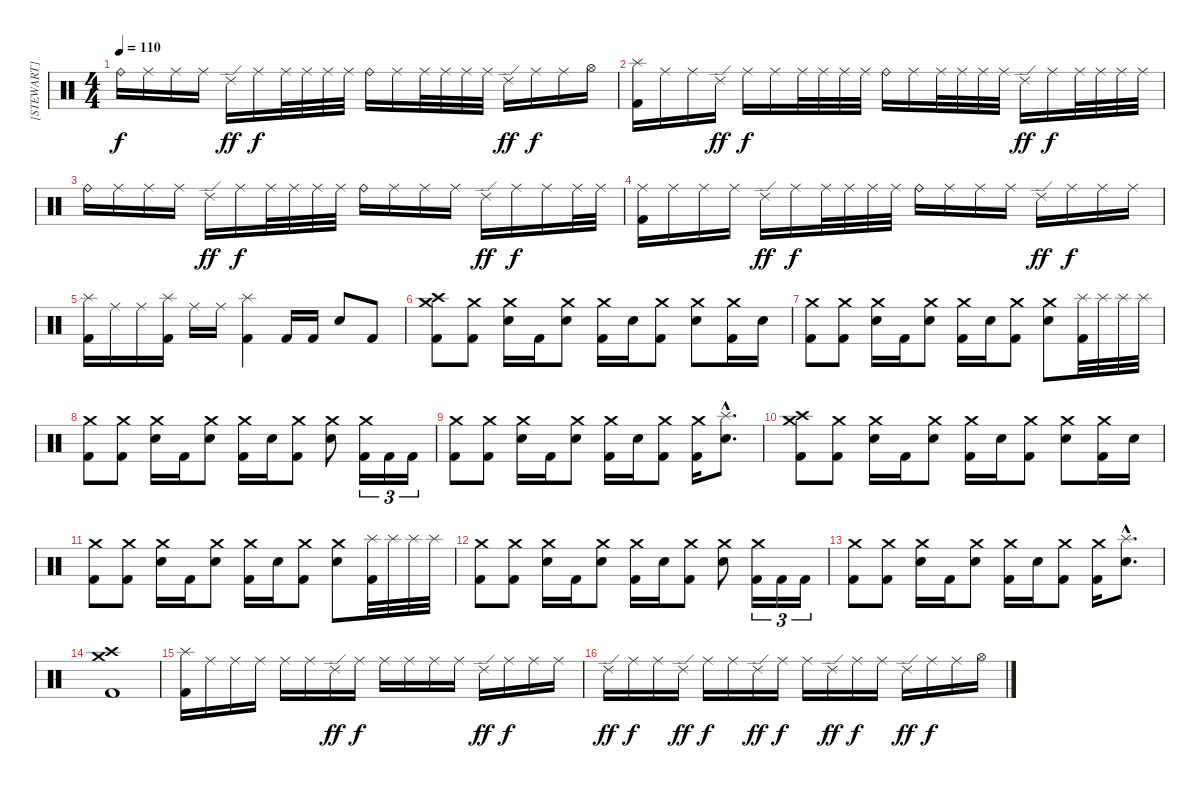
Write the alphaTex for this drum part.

\track ("[STEWART]" "[STEWART]") {instrument percussion}
\staff {score}
\articulation defaults
\ts (4 4)
\tempo 110
\clef neutral
\ks c "Ride (bell)".16{dy f} "Ride (middle)".16 "Ride (middle)".16 "Ride (middle)".16 "Ride (edge) 2".16{dy ff} "Ride (middle)".16{dy f} "Ride (middle)".32 "Ride (middle)".32 "Ride (middle)".32 "Ride (middle)".32 "Ride (bell)".16 "Ride (middle)".16 "Ride (middle)".32 "Ride (middle)".32 "Ride (middle)".32 "Ride (middle)".32 "Ride (edge) 2".16{dy ff} "Ride (middle)".16{dy f} "Ride (middle)".16 "Hi-Hat (open)".16
|
("Splash (hit)" "Kick (hit) 2").16 "Ride (middle)".16 "Ride (middle)".16 "Ride (edge) 2".16{dy ff} "Ride (middle)".16{dy f} "Ride (middle)".16 "Ride (middle)".32 "Ride (middle)".32 "Ride (middle)".32 "Ride (middle)".32 "Ride (bell)".16 "Ride (middle)".16 "Ride (middle)".32 "Ride (middle)".32 "Ride (middle)".32 "Ride (middle)".32 "Ride (edge) 2".16{dy ff} "Ride (middle)".16{dy f} "Ride (middle)".32 "Ride (middle)".32 "Ride (middle)".32 "Ride (middle)".32 |
"Ride (bell)".16 "Ride (middle)".16 "Ride (middle)".16 "Ride (middle)".16 "Ride (edge) 2".16{dy ff} "Ride (middle)".16{dy f} "Ride (middle)".32 "Ride (middle)".32 "Ride (middle)".32 "Ride (middle)".32 "Ride (bell)".16 "Ride (middle)".16 "Ride (middle)".16 "Ride (middle)".16 "Ride (edge) 2".16{dy ff} "Ride (middle)".16{dy f} "Ride (middle)".16 "Ride (middle)".32 "Ride (middle)".32 |
("Ride (middle)" "Kick (hit) 2").16 "Ride (middle)".16 "Ride (middle)".16 "Ride (middle)".16 "Ride (edge) 2".16{dy ff} "Ride (middle)".16{dy f} "Ride (middle)".32 "Ride (middle)".32 "Ride (middle)".32 "Ride (middle)".32 "Ride (bell)".16 "Ride (middle)".16 "Ride (middle)".16 "Ride (middle)".16 "Ride (edge) 2".16{dy ff} "Ride (middle)".16{dy f} "Ride (middle)".16 "Ride (middle)".16 |
("Splash (hit)" "Kick (hit) 2").16 "Ride (middle)".16 "Ride (middle)".16 ("Splash (hit)" "Kick (hit) 2").16 "Ride (middle)".16 "Ride (middle)".16 ("Splash (hit)" "Kick (hit) 2").4 "Kick (hit) 2".16 "Kick (hit) 2".16 "Electric Snare (hit)".8 "Kick (hit) 2".8 |
("Crash medium (hit)" "Crash high (hit)" "Kick (hit) 2").8 ("Crash medium (hit)" "Kick (hit) 2").8 ("Crash medium (hit)" "Electric Snare (hit)").16 "Kick (hit) 2".16 ("Crash medium (hit)" "Electric Snare (hit)").8 ("Crash medium (hit)" "Kick (hit) 2").16 "Electric Snare (hit)".16 ("Crash medium (hit)" "Kick (hit) 2").8 ("Crash medium (hit)" "Electric Snare (hit)").8 ("Crash medium (hit)" "Kick (hit) 2").16 "Electric Snare (hit)".16 |
("Crash medium (hit)" "Kick (hit) 2").8 ("Crash medium (hit)" "Kick (hit) 2").8 ("Crash medium (hit)" "Electric Snare (hit)").16 "Kick (hit) 2".16 ("Crash medium (hit)" "Electric Snare (hit)").8 ("Crash medium (hit)" "Kick (hit) 2").16 "Electric Snare (hit)".16 ("Crash medium (hit)" "Kick (hit) 2").8 ("Crash medium (hit)" "Electric Snare (hit)").8 ("Splash (hit)" "Kick (hit) 2").32 "Splash (hit)".32 "Splash (hit)".32 "Splash (hit)".32 |
("Crash medium (hit)" "Kick (hit) 2").8 ("Crash medium (hit)" "Kick (hit) 2").8 ("Crash medium (hit)" "Electric Snare (hit)").16 "Kick (hit) 2".16 ("Crash medium (hit)" "Electric Snare (hit)").8 ("Crash medium (hit)" "Kick (hit) 2").16 "Electric Snare (hit)".16 ("Crash medium (hit)" "Kick (hit) 2").8 ("Crash medium (hit)" "Electric Snare (hit)").8 ("Crash medium (hit)" "Kick (hit) 2").16{tu (3 2)} "Kick (hit) 2".16{tu (3 2)} "Kick (hit) 2".16{tu (3 2)} |
("Crash medium (hit)" "Kick (hit) 2").8 ("Crash medium (hit)" "Kick (hit) 2").8 ("Crash medium (hit)" "Electric Snare (hit)").16 "Kick (hit) 2".16 ("Crash medium (hit)" "Electric Snare (hit)").8 ("Crash medium (hit)" "Kick (hit) 2").16 "Electric Snare (hit)".16 ("Crash medium (hit)" "Kick (hit) 2").8 ("Crash medium (hit)" "Kick (hit) 2").16 ("Splash (hit)"{hac} "Electric Snare (hit)"{hac}).8{d} |
("Crash medium (hit)" "Crash high (hit)" "Kick (hit) 2").8 ("Crash medium (hit)" "Kick (hit) 2").8 ("Crash medium (hit)" "Electric Snare (hit)").16 "Kick (hit) 2".16 ("Crash medium (hit)" "Electric Snare (hit)").8 ("Crash medium (hit)" "Kick (hit) 2").16 "Electric Snare (hit)".16 ("Crash medium (hit)" "Kick (hit) 2").8 ("Crash medium (hit)" "Electric Snare (hit)").8 ("Crash medium (hit)" "Kick (hit) 2").16 "Electric Snare (hit)".16 |
("Crash medium (hit)" "Kick (hit) 2").8 ("Crash medium (hit)" "Kick (hit) 2").8 ("Crash medium (hit)" "Electric Snare (hit)").16 "Kick (hit) 2".16 ("Crash medium (hit)" "Electric Snare (hit)").8 ("Crash medium (hit)" "Kick (hit) 2").16 "Electric Snare (hit)".16 ("Crash medium (hit)" "Kick (hit) 2").8 ("Crash medium (hit)" "Electric Snare (hit)").8 ("Splash (hit)" "Kick (hit) 2").32 "Splash (hit)".32 "Splash (hit)".32 "Splash (hit)".32 |
("Crash medium (hit)" "Kick (hit) 2").8 ("Crash medium (hit)" "Kick (hit) 2").8 ("Crash medium (hit)" "Electric Snare (hit)").16 "Kick (hit) 2".16 ("Crash medium (hit)" "Electric Snare (hit)").8 ("Crash medium (hit)" "Kick (hit) 2").16 "Electric Snare (hit)".16 ("Crash medium (hit)" "Kick (hit) 2").8 ("Crash medium (hit)" "Electric Snare (hit)").8 ("Crash medium (hit)" "Kick (hit) 2").16{tu (3 2)} "Kick (hit) 2".16{tu (3 2)} "Kick (hit) 2".16{tu (3 2)} |
("Crash medium (hit)" "Kick (hit) 2").8 ("Crash medium (hit)" "Kick (hit) 2").8 ("Crash medium (hit)" "Electric Snare (hit)").16 "Kick (hit) 2".16 ("Crash medium (hit)" "Electric Snare (hit)").8 ("Crash medium (hit)" "Kick (hit) 2").16 "Electric Snare (hit)".16 ("Crash medium (hit)" "Kick (hit) 2").8 ("Crash medium (hit)" "Kick (hit) 2").16 ("Splash (hit)"{hac} "Electric Snare (hit)"{hac}).8{d} |
("Crash medium (hit)" "Crash high (hit)" "Kick (hit) 2").1 |
("Splash (hit)" "Kick (hit) 2").16 "Ride (middle)".16 "Ride (middle)".16 "Ride (middle)".16 "Ride (middle)".16 "Ride (middle)".16 "Ride (edge) 2".16{dy ff} "Ride (middle)".16{dy f} "Ride (middle)".16 "Ride (middle)".16 "Ride (middle)".16 "Ride (middle)".16 "Ride (edge) 2".16{dy ff} "Ride (middle)".16{dy f} "Ride (middle)".16 "Ride (middle)".16 |
"Ride (edge) 2".16{dy ff} "Ride (middle)".16{dy f} "Ride (middle)".16 "Ride (edge) 2".16{dy ff} "Ride (middle)".16{dy f} "Ride (middle)".16 "Ride (edge) 2".16{dy ff} "Ride (middle)".16{dy f} "Ride (middle)".16 "Ride (edge) 2".16{dy ff} "Ride (middle)".16{dy f} "Ride (middle)".16 "Ride (edge) 2".16{dy ff} "Ride (middle)".16{dy f} "Ride (middle)".16 "Hi-Hat (open)".16
